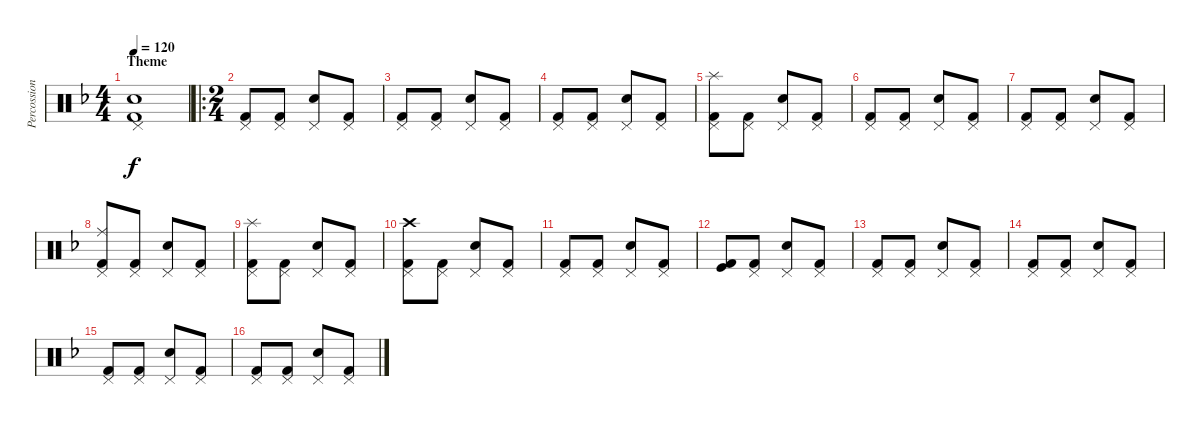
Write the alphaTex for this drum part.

\track ("Percossion" "Percossion") {instrument percussion}
\staff {score}
\articulation defaults
\ts (4 4)
\section ("" "Theme")
\tempo 120
\clef neutral
\ks f
("Pedal Hi-Hat (hit)" "Snare (hit) 2" "Kick (hit) 2").1{dy f} |
\ro
\ts (2 4)
("Pedal Hi-Hat (hit)" "Kick (hit) 2").8 ("Pedal Hi-Hat (hit)" "Kick (hit) 2").8 ("Pedal Hi-Hat (hit)" "Snare (hit) 2").8 ("Pedal Hi-Hat (hit)" "Kick (hit) 2").8 |
("Pedal Hi-Hat (hit)" "Kick (hit) 2").8 ("Pedal Hi-Hat (hit)" "Kick (hit) 2").8 ("Pedal Hi-Hat (hit)" "Snare (hit) 2").8 ("Pedal Hi-Hat (hit)" "Kick (hit) 2").8 |
("Pedal Hi-Hat (hit)" "Kick (hit) 2").8 ("Pedal Hi-Hat (hit)" "Kick (hit) 2").8 ("Pedal Hi-Hat (hit)" "Snare (hit) 2").8 ("Pedal Hi-Hat (hit)" "Kick (hit) 2").8 |
("Pedal Hi-Hat (hit)" "Splash (hit)" "Kick (hit) 2").8 ("Pedal Hi-Hat (hit)" "Kick (hit) 2").8 ("Pedal Hi-Hat (hit)" "Snare (hit) 2").8 ("Pedal Hi-Hat (hit)" "Kick (hit) 2").8 |
("Pedal Hi-Hat (hit)" "Kick (hit) 2").8 ("Pedal Hi-Hat (hit)" "Kick (hit) 2").8 ("Pedal Hi-Hat (hit)" "Snare (hit) 2").8 ("Pedal Hi-Hat (hit)" "Kick (hit) 2").8 |
("Pedal Hi-Hat (hit)" "Kick (hit) 2").8 ("Pedal Hi-Hat (hit)" "Kick (hit) 2").8 ("Pedal Hi-Hat (hit)" "Snare (hit) 2").8 ("Pedal Hi-Hat (hit)" "Kick (hit) 2").8 |
("Pedal Hi-Hat (hit)" "Ride (middle)" "Kick (hit) 2").8 ("Pedal Hi-Hat (hit)" "Kick (hit) 2").8 ("Pedal Hi-Hat (hit)" "Snare (hit) 2").8 ("Pedal Hi-Hat (hit)" "Kick (hit) 2").8 |
("Pedal Hi-Hat (hit)" "Splash (hit)" "Kick (hit) 2").8 ("Pedal Hi-Hat (hit)" "Kick (hit) 2").8 ("Pedal Hi-Hat (hit)" "Snare (hit) 2").8 ("Pedal Hi-Hat (hit)" "Kick (hit) 2").8 |
("Pedal Hi-Hat (hit)" "Crash high (hit)" "Kick (hit) 2").8 ("Pedal Hi-Hat (hit)" "Kick (hit) 2").8 ("Pedal Hi-Hat (hit)" "Snare (hit) 2").8 ("Pedal Hi-Hat (hit)" "Kick (hit) 2").8 |
("Pedal Hi-Hat (hit)" "Kick (hit) 2").8 ("Pedal Hi-Hat (hit)" "Kick (hit) 2").8 ("Pedal Hi-Hat (hit)" "Snare (hit) 2").8 ("Pedal Hi-Hat (hit)" "Kick (hit) 2").8 |
("Kick (hit)" "Kick (hit) 2").8 ("Pedal Hi-Hat (hit)" "Kick (hit) 2").8 ("Pedal Hi-Hat (hit)" "Snare (hit) 2").8 ("Pedal Hi-Hat (hit)" "Kick (hit) 2").8 |
("Pedal Hi-Hat (hit)" "Kick (hit) 2").8 ("Pedal Hi-Hat (hit)" "Kick (hit) 2").8 ("Pedal Hi-Hat (hit)" "Snare (hit) 2").8 ("Pedal Hi-Hat (hit)" "Kick (hit) 2").8 |
("Pedal Hi-Hat (hit)" "Kick (hit) 2").8 ("Pedal Hi-Hat (hit)" "Kick (hit) 2").8 ("Pedal Hi-Hat (hit)" "Snare (hit) 2").8 ("Pedal Hi-Hat (hit)" "Kick (hit) 2").8 |
("Pedal Hi-Hat (hit)" "Kick (hit) 2").8 ("Pedal Hi-Hat (hit)" "Kick (hit) 2").8 ("Pedal Hi-Hat (hit)" "Snare (hit) 2").8 ("Pedal Hi-Hat (hit)" "Kick (hit) 2").8 |
("Pedal Hi-Hat (hit)" "Kick (hit) 2").8 ("Pedal Hi-Hat (hit)" "Kick (hit) 2").8 ("Pedal Hi-Hat (hit)" "Snare (hit) 2").8 ("Pedal Hi-Hat (hit)" "Kick (hit) 2").8
